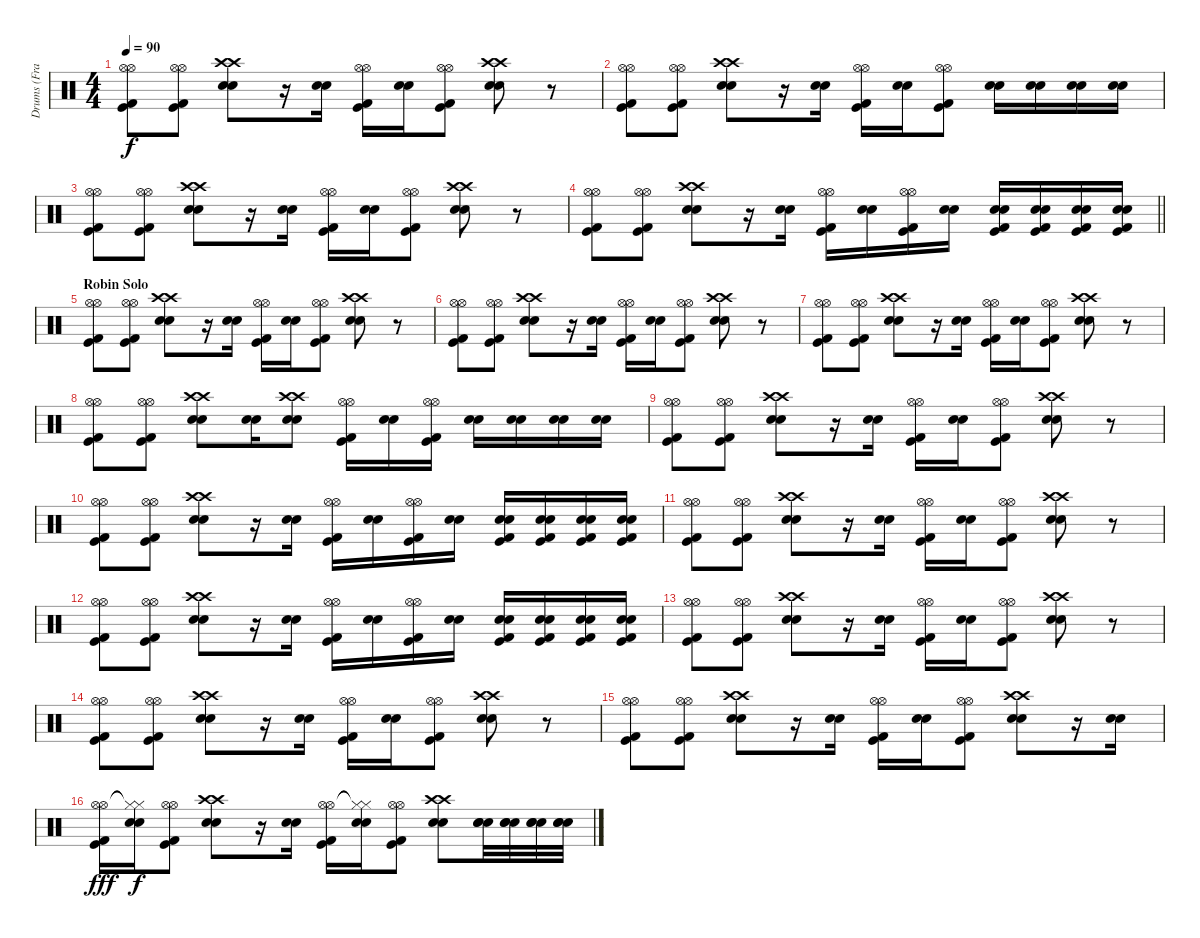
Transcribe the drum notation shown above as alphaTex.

\track ("Drums (Frank Ferrer)" "Drums (Fra") {instrument percussion}
\staff {score}
\articulation defaults
\ts (4 4)
\tempo 90
\clef neutral
\ks c
("Hi-Hat (open)" "Hi-Hat (open)" "Kick (hit)" "Kick (hit) 2").8{dy f} ("Hi-Hat (open)" "Hi-Hat (open)" "Kick (hit)" "Kick (hit) 2").8 ("Crash high (hit)" "Crash high (hit)" "Snare (hit) 2" "Snare (hit) 2").8 r.16 ("Snare (hit) 2" "Snare (hit) 2").16 ("Hi-Hat (open)" "Hi-Hat (open)" "Kick (hit)" "Kick (hit) 2").16 ("Snare (hit) 2" "Snare (hit) 2").16 ("Hi-Hat (open)" "Hi-Hat (open)" "Kick (hit)" "Kick (hit) 2").8 ("Crash high (hit)" "Crash high (hit)" "Snare (hit) 2" "Snare (hit) 2").8 r.8 |
("Hi-Hat (open)" "Hi-Hat (open)" "Kick (hit)" "Kick (hit) 2").8 ("Hi-Hat (open)" "Hi-Hat (open)" "Kick (hit)" "Kick (hit) 2").8 ("Crash high (hit)" "Crash high (hit)" "Snare (hit) 2" "Snare (hit) 2").8 r.16 ("Snare (hit) 2" "Snare (hit) 2").16 ("Hi-Hat (open)" "Hi-Hat (open)" "Kick (hit)" "Kick (hit) 2").16 ("Snare (hit) 2" "Snare (hit) 2").16 ("Hi-Hat (open)" "Hi-Hat (open)" "Kick (hit)" "Kick (hit) 2").8 ("Snare (hit) 2" "Snare (hit) 2").16 ("Snare (hit) 2" "Snare (hit) 2").16 ("Snare (hit) 2" "Snare (hit) 2").16 ("Snare (hit) 2" "Snare (hit) 2").16 |
("Hi-Hat (open)" "Hi-Hat (open)" "Kick (hit)" "Kick (hit) 2").8 ("Hi-Hat (open)" "Hi-Hat (open)" "Kick (hit)" "Kick (hit) 2").8 ("Crash high (hit)" "Crash high (hit)" "Snare (hit) 2" "Snare (hit) 2").8 r.16 ("Snare (hit) 2" "Snare (hit) 2").16 ("Hi-Hat (open)" "Hi-Hat (open)" "Kick (hit)" "Kick (hit) 2").16 ("Snare (hit) 2" "Snare (hit) 2").16 ("Hi-Hat (open)" "Hi-Hat (open)" "Kick (hit)" "Kick (hit) 2").8 ("Crash high (hit)" "Crash high (hit)" "Snare (hit) 2" "Snare (hit) 2").8 r.8 |
\barLineRight lightlight
("Hi-Hat (open)" "Hi-Hat (open)" "Kick (hit)" "Kick (hit) 2").8 ("Hi-Hat (open)" "Hi-Hat (open)" "Kick (hit)" "Kick (hit) 2").8 ("Crash high (hit)" "Crash high (hit)" "Snare (hit) 2" "Snare (hit) 2").8 r.16 ("Snare (hit) 2" "Snare (hit) 2").16 ("Hi-Hat (open)" "Hi-Hat (open)" "Kick (hit)" "Kick (hit) 2").16 ("Snare (hit) 2" "Snare (hit) 2").16 ("Hi-Hat (open)" "Hi-Hat (open)" "Kick (hit)" "Kick (hit) 2").16 ("Snare (hit) 2" "Snare (hit) 2").16 ("Snare (hit) 2" "Snare (hit) 2" "Kick (hit)" "Kick (hit) 2").16 ("Snare (hit) 2" "Snare (hit) 2" "Kick (hit)" "Kick (hit) 2").16 ("Snare (hit) 2" "Snare (hit) 2" "Kick (hit)" "Kick (hit) 2").16 ("Snare (hit) 2" "Snare (hit) 2" "Kick (hit)" "Kick (hit) 2").16 |
\section ("" "Robin Solo")
("Hi-Hat (open)" "Hi-Hat (open)" "Kick (hit)" "Kick (hit) 2").8{volume 13} ("Hi-Hat (open)" "Hi-Hat (open)" "Kick (hit)" "Kick (hit) 2").8 ("Crash high (hit)" "Crash high (hit)" "Snare (hit) 2" "Snare (hit) 2").8 r.16 ("Snare (hit) 2" "Snare (hit) 2").16 ("Hi-Hat (open)" "Hi-Hat (open)" "Kick (hit)" "Kick (hit) 2").16 ("Snare (hit) 2" "Snare (hit) 2").16 ("Hi-Hat (open)" "Hi-Hat (open)" "Kick (hit)" "Kick (hit) 2").8 ("Crash high (hit)" "Crash high (hit)" "Snare (hit) 2" "Snare (hit) 2").8 r.8 |
("Hi-Hat (open)" "Hi-Hat (open)" "Kick (hit)" "Kick (hit) 2").8 ("Hi-Hat (open)" "Hi-Hat (open)" "Kick (hit)" "Kick (hit) 2").8 ("Crash high (hit)" "Crash high (hit)" "Snare (hit) 2" "Snare (hit) 2").8 r.16 ("Snare (hit) 2" "Snare (hit) 2").16 ("Hi-Hat (open)" "Hi-Hat (open)" "Kick (hit)" "Kick (hit) 2").16 ("Snare (hit) 2" "Snare (hit) 2").16 ("Hi-Hat (open)" "Hi-Hat (open)" "Kick (hit)" "Kick (hit) 2").8 ("Crash high (hit)" "Crash high (hit)" "Snare (hit) 2" "Snare (hit) 2").8 r.8 |
("Hi-Hat (open)" "Hi-Hat (open)" "Kick (hit)" "Kick (hit) 2").8 ("Hi-Hat (open)" "Hi-Hat (open)" "Kick (hit)" "Kick (hit) 2").8 ("Crash high (hit)" "Crash high (hit)" "Snare (hit) 2" "Snare (hit) 2").8 r.16 ("Snare (hit) 2" "Snare (hit) 2").16 ("Hi-Hat (open)" "Hi-Hat (open)" "Kick (hit)" "Kick (hit) 2").16 ("Snare (hit) 2" "Snare (hit) 2").16 ("Hi-Hat (open)" "Hi-Hat (open)" "Kick (hit)" "Kick (hit) 2").8 ("Crash high (hit)" "Crash high (hit)" "Snare (hit) 2" "Snare (hit) 2").8 r.8 |
("Hi-Hat (open)" "Hi-Hat (open)" "Kick (hit)" "Kick (hit) 2").8 ("Hi-Hat (open)" "Hi-Hat (open)" "Kick (hit)" "Kick (hit) 2").8 ("Crash high (hit)" "Crash high (hit)" "Snare (hit) 2" "Snare (hit) 2").8 ("Snare (hit) 2" "Snare (hit) 2").16 ("Crash high (hit)" "Crash high (hit)" "Snare (hit) 2" "Snare (hit) 2").8 ("Hi-Hat (open)" "Hi-Hat (open)" "Kick (hit)" "Kick (hit) 2").16 ("Snare (hit) 2" "Snare (hit) 2").16 ("Hi-Hat (open)" "Hi-Hat (open)" "Kick (hit)" "Kick (hit) 2").16 ("Snare (hit) 2" "Snare (hit) 2").16 ("Snare (hit) 2" "Snare (hit) 2").16 ("Snare (hit) 2" "Snare (hit) 2").16 ("Snare (hit) 2" "Snare (hit) 2").16 |
("Hi-Hat (open)" "Hi-Hat (open)" "Kick (hit)" "Kick (hit) 2").8 ("Hi-Hat (open)" "Hi-Hat (open)" "Kick (hit)" "Kick (hit) 2").8 ("Crash high (hit)" "Crash high (hit)" "Snare (hit) 2" "Snare (hit) 2").8 r.16 ("Snare (hit) 2" "Snare (hit) 2").16 ("Hi-Hat (open)" "Hi-Hat (open)" "Kick (hit)" "Kick (hit) 2").16 ("Snare (hit) 2" "Snare (hit) 2").16 ("Hi-Hat (open)" "Hi-Hat (open)" "Kick (hit)" "Kick (hit) 2").8 ("Crash high (hit)" "Crash high (hit)" "Snare (hit) 2" "Snare (hit) 2").8 r.8 |
("Hi-Hat (open)" "Hi-Hat (open)" "Kick (hit)" "Kick (hit) 2").8 ("Hi-Hat (open)" "Hi-Hat (open)" "Kick (hit)" "Kick (hit) 2").8 ("Crash high (hit)" "Crash high (hit)" "Snare (hit) 2" "Snare (hit) 2").8 r.16 ("Snare (hit) 2" "Snare (hit) 2").16 ("Hi-Hat (open)" "Hi-Hat (open)" "Kick (hit)" "Kick (hit) 2").16 ("Snare (hit) 2" "Snare (hit) 2").16 ("Hi-Hat (open)" "Hi-Hat (open)" "Kick (hit)" "Kick (hit) 2").16 ("Snare (hit) 2" "Snare (hit) 2").16 ("Snare (hit) 2" "Snare (hit) 2" "Kick (hit)" "Kick (hit) 2").16 ("Snare (hit) 2" "Snare (hit) 2" "Kick (hit)" "Kick (hit) 2").16 ("Snare (hit) 2" "Snare (hit) 2" "Kick (hit)" "Kick (hit) 2").16 ("Snare (hit) 2" "Snare (hit) 2" "Kick (hit)" "Kick (hit) 2").16 |
("Hi-Hat (open)" "Hi-Hat (open)" "Kick (hit)" "Kick (hit) 2").8 ("Hi-Hat (open)" "Hi-Hat (open)" "Kick (hit)" "Kick (hit) 2").8 ("Crash high (hit)" "Crash high (hit)" "Snare (hit) 2" "Snare (hit) 2").8 r.16 ("Snare (hit) 2" "Snare (hit) 2").16 ("Hi-Hat (open)" "Hi-Hat (open)" "Kick (hit)" "Kick (hit) 2").16 ("Snare (hit) 2" "Snare (hit) 2").16 ("Hi-Hat (open)" "Hi-Hat (open)" "Kick (hit)" "Kick (hit) 2").8 ("Crash high (hit)" "Crash high (hit)" "Snare (hit) 2" "Snare (hit) 2").8 r.8 |
("Hi-Hat (open)" "Hi-Hat (open)" "Kick (hit)" "Kick (hit) 2").8 ("Hi-Hat (open)" "Hi-Hat (open)" "Kick (hit)" "Kick (hit) 2").8 ("Crash high (hit)" "Crash high (hit)" "Snare (hit) 2" "Snare (hit) 2").8 r.16 ("Snare (hit) 2" "Snare (hit) 2").16 ("Hi-Hat (open)" "Hi-Hat (open)" "Kick (hit)" "Kick (hit) 2").16 ("Snare (hit) 2" "Snare (hit) 2").16 ("Hi-Hat (open)" "Hi-Hat (open)" "Kick (hit)" "Kick (hit) 2").16 ("Snare (hit) 2" "Snare (hit) 2").16 ("Snare (hit) 2" "Snare (hit) 2" "Kick (hit)" "Kick (hit) 2").16 ("Snare (hit) 2" "Snare (hit) 2" "Kick (hit)" "Kick (hit) 2").16 ("Snare (hit) 2" "Snare (hit) 2" "Kick (hit)" "Kick (hit) 2").16 ("Snare (hit) 2" "Snare (hit) 2" "Kick (hit)" "Kick (hit) 2").16 |
("Hi-Hat (open)" "Hi-Hat (open)" "Kick (hit)" "Kick (hit) 2").8 ("Hi-Hat (open)" "Hi-Hat (open)" "Kick (hit)" "Kick (hit) 2").8 ("Crash high (hit)" "Crash high (hit)" "Snare (hit) 2" "Snare (hit) 2").8 r.16 ("Snare (hit) 2" "Snare (hit) 2").16 ("Hi-Hat (open)" "Hi-Hat (open)" "Kick (hit)" "Kick (hit) 2").16 ("Snare (hit) 2" "Snare (hit) 2").16 ("Hi-Hat (open)" "Hi-Hat (open)" "Kick (hit)" "Kick (hit) 2").8 ("Crash high (hit)" "Crash high (hit)" "Snare (hit) 2" "Snare (hit) 2").8 r.8 |
("Hi-Hat (open)" "Hi-Hat (open)" "Kick (hit)" "Kick (hit) 2").8 ("Hi-Hat (open)" "Hi-Hat (open)" "Kick (hit)" "Kick (hit) 2").8 ("Crash high (hit)" "Crash high (hit)" "Snare (hit) 2" "Snare (hit) 2").8 r.16 ("Snare (hit) 2" "Snare (hit) 2").16 ("Hi-Hat (open)" "Hi-Hat (open)" "Kick (hit)" "Kick (hit) 2").16 ("Snare (hit) 2" "Snare (hit) 2").16 ("Hi-Hat (open)" "Hi-Hat (open)" "Kick (hit)" "Kick (hit) 2").8 ("Crash high (hit)" "Crash high (hit)" "Snare (hit) 2" "Snare (hit) 2").8 r.8 |
("Hi-Hat (open)" "Hi-Hat (open)" "Kick (hit)" "Kick (hit) 2").8 ("Hi-Hat (open)" "Hi-Hat (open)" "Kick (hit)" "Kick (hit) 2").8 ("Crash high (hit)" "Crash high (hit)" "Snare (hit) 2" "Snare (hit) 2").8 r.16 ("Snare (hit) 2" "Snare (hit) 2").16 ("Hi-Hat (open)" "Hi-Hat (open)" "Kick (hit)" "Kick (hit) 2").16 ("Snare (hit) 2" "Snare (hit) 2").16 ("Hi-Hat (open)" "Hi-Hat (open)" "Kick (hit)" "Kick (hit) 2").8 ("Crash high (hit)" "Crash high (hit)" "Snare (hit) 2" "Snare (hit) 2").8 r.16 ("Snare (hit) 2" "Snare (hit) 2").16 |
("Hi-Hat (open)" "Hi-Hat (open)" "Kick (hit)" "Kick (hit) 2").16{dy fff} ("Hi-Hat (closed)"{t} "Hi-Hat (closed)"{t} "Snare (hit) 2" "Snare (hit) 2").16{dy f} ("Hi-Hat (open)" "Hi-Hat (open)" "Kick (hit)" "Kick (hit) 2").8 ("Crash high (hit)" "Crash high (hit)" "Snare (hit) 2" "Snare (hit) 2").8 r.16 ("Snare (hit) 2" "Snare (hit) 2").16 ("Hi-Hat (open)" "Hi-Hat (open)" "Kick (hit)" "Kick (hit) 2").16 ("Hi-Hat (closed)"{t} "Hi-Hat (closed)"{t} "Snare (hit) 2" "Snare (hit) 2").16 ("Hi-Hat (open)" "Hi-Hat (open)" "Kick (hit)" "Kick (hit) 2").8 ("Crash high (hit)" "Crash high (hit)" "Snare (hit) 2" "Snare (hit) 2").8 ("Snare (hit) 2" "Snare (hit) 2" "Snare (hit) 2").32 ("Snare (hit) 2" "Snare (hit) 2" "Snare (hit) 2").32 ("Snare (hit) 2" "Snare (hit) 2" "Snare (hit) 2").32 ("Snare (hit) 2" "Snare (hit) 2" "Snare (hit) 2").32
